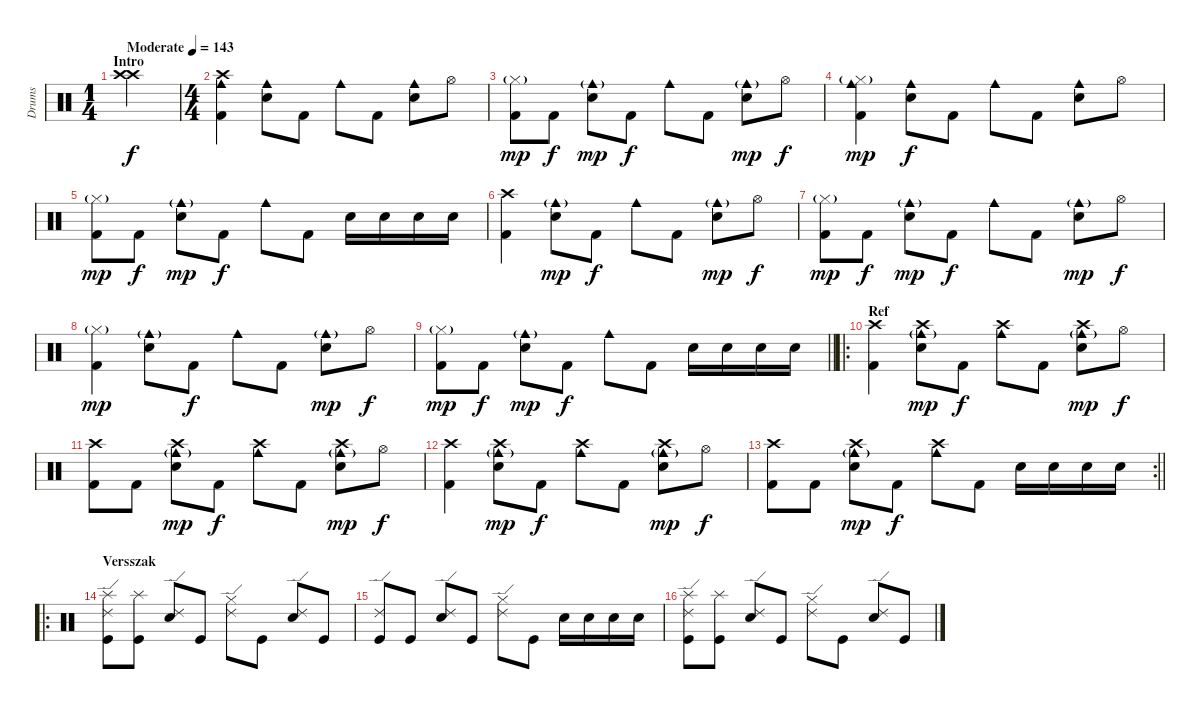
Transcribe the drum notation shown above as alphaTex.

\track ("Drums" "Drums") {instrument percussion}
\staff {score}
\articulation defaults
\ts (1 4)
\section ("" "Intro")
\tempo (143 "Moderate")
\clef neutral
\ks c
("Crash high (hit)" "Crash high (hit)").4{dy f} |
\ts (4 4)
("Crash high (hit)" "Kick (hit) 2" "Cowbell medium (hit)").4 ("Electric Snare (hit)" "Cowbell medium (hit)").8 "Kick (hit) 2".8 "Cowbell medium (hit)".8 "Kick (hit) 2".8 ("Electric Snare (hit)" "Cowbell medium (hit)").8 "Hi-Hat (open)".8 |
("Kick (hit) 2" "Hi-Hat (closed)"{g}).8{dy mp} "Kick (hit) 2".8{dy f} ("Electric Snare (hit)" "Cowbell medium (hit)"{g}).8{dy mp} "Kick (hit) 2".8{dy f} "Cowbell medium (hit)".8 "Kick (hit) 2".8 ("Electric Snare (hit)" "Cowbell medium (hit)"{g}).8{dy mp} "Hi-Hat (open)".8{dy f} |
("Kick (hit) 2" "Hi-Hat (closed)"{g} "Cowbell medium (hit)").4{dy mp} ("Electric Snare (hit)" "Cowbell medium (hit)").8{dy f} "Kick (hit) 2".8 "Cowbell medium (hit)".8 "Kick (hit) 2".8 ("Electric Snare (hit)" "Cowbell medium (hit)").8 "Hi-Hat (open)".8 |
("Kick (hit) 2" "Hi-Hat (closed)"{g}).8{dy mp} "Kick (hit) 2".8{dy f} ("Electric Snare (hit)" "Cowbell medium (hit)"{g}).8{dy mp} "Kick (hit) 2".8{dy f} "Cowbell medium (hit)".8 "Kick (hit) 2".8 "Electric Snare (hit)".16{balance 0} "Electric Snare (hit)".16{balance 5} "Electric Snare (hit)".16{balance 11} "Electric Snare (hit)".16{balance 16} |
("Crash high (hit)" "Kick (hit) 2").4 ("Electric Snare (hit)" "Cowbell medium (hit)"{g}).8{dy mp} "Kick (hit) 2".8{dy f} "Cowbell medium (hit)".8 "Kick (hit) 2".8 ("Electric Snare (hit)" "Cowbell medium (hit)"{g}).8{dy mp} "Hi-Hat (open)".8{dy f} |
("Kick (hit) 2" "Hi-Hat (closed)"{g}).8{dy mp} "Kick (hit) 2".8{dy f} ("Electric Snare (hit)" "Cowbell medium (hit)"{g}).8{dy mp} "Kick (hit) 2".8{dy f} "Cowbell medium (hit)".8 "Kick (hit) 2".8 ("Electric Snare (hit)" "Cowbell medium (hit)"{g}).8{dy mp} "Hi-Hat (open)".8{dy f} |
("Kick (hit) 2" "Hi-Hat (closed)"{g}).4{dy mp} ("Electric Snare (hit)" "Cowbell medium (hit)"{g}).8 "Kick (hit) 2".8{dy f} "Cowbell medium (hit)".8 "Kick (hit) 2".8 ("Electric Snare (hit)" "Cowbell medium (hit)"{g}).8{dy mp} "Hi-Hat (open)".8{dy f} |
\barLineRight lightlight
("Kick (hit) 2" "Hi-Hat (closed)"{g}).8{dy mp} "Kick (hit) 2".8{dy f} ("Electric Snare (hit)" "Cowbell medium (hit)"{g}).8{dy mp} "Kick (hit) 2".8{dy f} "Cowbell medium (hit)".8 "Kick (hit) 2".8 "Electric Snare (hit)".16{balance 0} "Electric Snare (hit)".16{balance 5} "Electric Snare (hit)".16{balance 11} "Electric Snare (hit)".16{balance 16} |
\ro
\section ("" "Ref")
("Crash high (hit)" "Kick (hit) 2").4 ("Crash high (hit)" "Electric Snare (hit)" "Cowbell medium (hit)"{g}).8{dy mp} "Kick (hit) 2".8{dy f} ("Crash high (hit)" "Cowbell medium (hit)").8 "Kick (hit) 2".8 ("Crash high (hit)" "Electric Snare (hit)" "Cowbell medium (hit)"{g}).8{dy mp} "Hi-Hat (open)".8{dy f} |
("Crash high (hit)" "Kick (hit) 2").8 "Kick (hit) 2".8 ("Crash high (hit)" "Electric Snare (hit)" "Cowbell medium (hit)"{g}).8{dy mp} "Kick (hit) 2".8{dy f} ("Crash high (hit)" "Cowbell medium (hit)").8 "Kick (hit) 2".8 ("Crash high (hit)" "Electric Snare (hit)" "Cowbell medium (hit)"{g}).8{dy mp} "Hi-Hat (open)".8{dy f} |
("Crash high (hit)" "Kick (hit) 2").4 ("Crash high (hit)" "Electric Snare (hit)" "Cowbell medium (hit)"{g}).8{dy mp} "Kick (hit) 2".8{dy f} ("Crash high (hit)" "Cowbell medium (hit)").8 "Kick (hit) 2".8 ("Crash high (hit)" "Electric Snare (hit)" "Cowbell medium (hit)"{g}).8{dy mp} "Hi-Hat (open)".8{dy f} |
\rc 2
\barLineRight lightlight
("Crash high (hit)" "Kick (hit) 2").8 "Kick (hit) 2".8 ("Crash high (hit)" "Electric Snare (hit)" "Cowbell medium (hit)"{g}).8{dy mp} "Kick (hit) 2".8{dy f} ("Crash high (hit)" "Cowbell medium (hit)").8 "Kick (hit) 2".8 "Electric Snare (hit)".16 "Electric Snare (hit)".16 "Electric Snare (hit)".16 "Electric Snare (hit)".16 |
\ro
\section ("" "Versszak")
("Ride (edge) 2" "Splash (hit)" "Kick (hit)").8{balance 0} ("Splash (hit)" "Kick (hit)").8{balance 16} ("Ride (edge) 2" "Electric Snare (hit)").8 "Kick (hit)".8 ("Ride (edge) 2" "Hi-Hat (closed)").8 "Kick (hit)".8 ("Ride (edge) 2" "Electric Snare (hit)").8 "Kick (hit)".8 |
("Ride (edge) 2" "Kick (hit)").8 "Kick (hit)".8 ("Ride (edge) 2" "Electric Snare (hit)").8 "Kick (hit)".8 ("Ride (edge) 2" "Hi-Hat (closed)").8 "Kick (hit)".8 "Electric Snare (hit)".16{balance 0} "Electric Snare (hit)".16{balance 5} "Electric Snare (hit)".16{balance 11} "Electric Snare (hit)".16{balance 16} |
("Ride (edge) 2" "Splash (hit)" "Kick (hit)").8{balance 0} ("Splash (hit)" "Kick (hit)").8{balance 16} ("Ride (edge) 2" "Electric Snare (hit)").8 "Kick (hit)".8 ("Ride (edge) 2" "Hi-Hat (closed)").8 "Kick (hit)".8 ("Ride (edge) 2" "Electric Snare (hit)").8 "Kick (hit)".8
